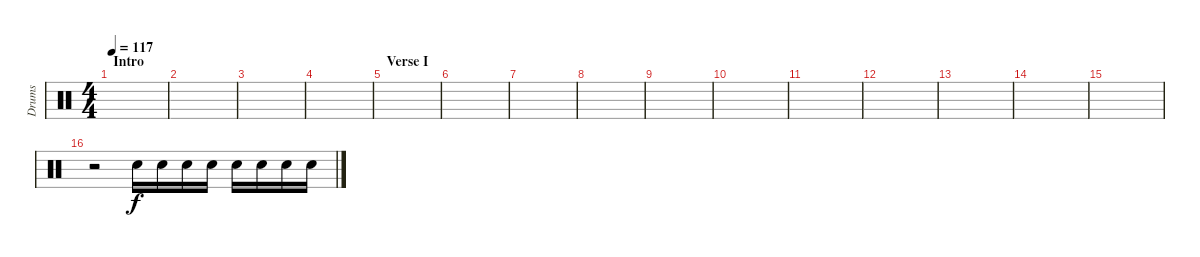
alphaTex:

\track ("Drums" "Drums") {instrument percussion}
\staff {score}
\articulation defaults
\ts (4 4)
\section ("" "Intro")
\tempo 117
\clef neutral
\ks c
|
|
|
|
\section ("" "Verse I")
|
|
|
|
|
|
|
|
|
|
|
r.2 "Snare (hit) 2".16 "Snare (hit) 2".16 "Snare (hit) 2".16 "Snare (hit) 2".16 "Snare (hit) 2".16 "Snare (hit) 2".16 "Snare (hit) 2".16 "Snare (hit) 2".16
